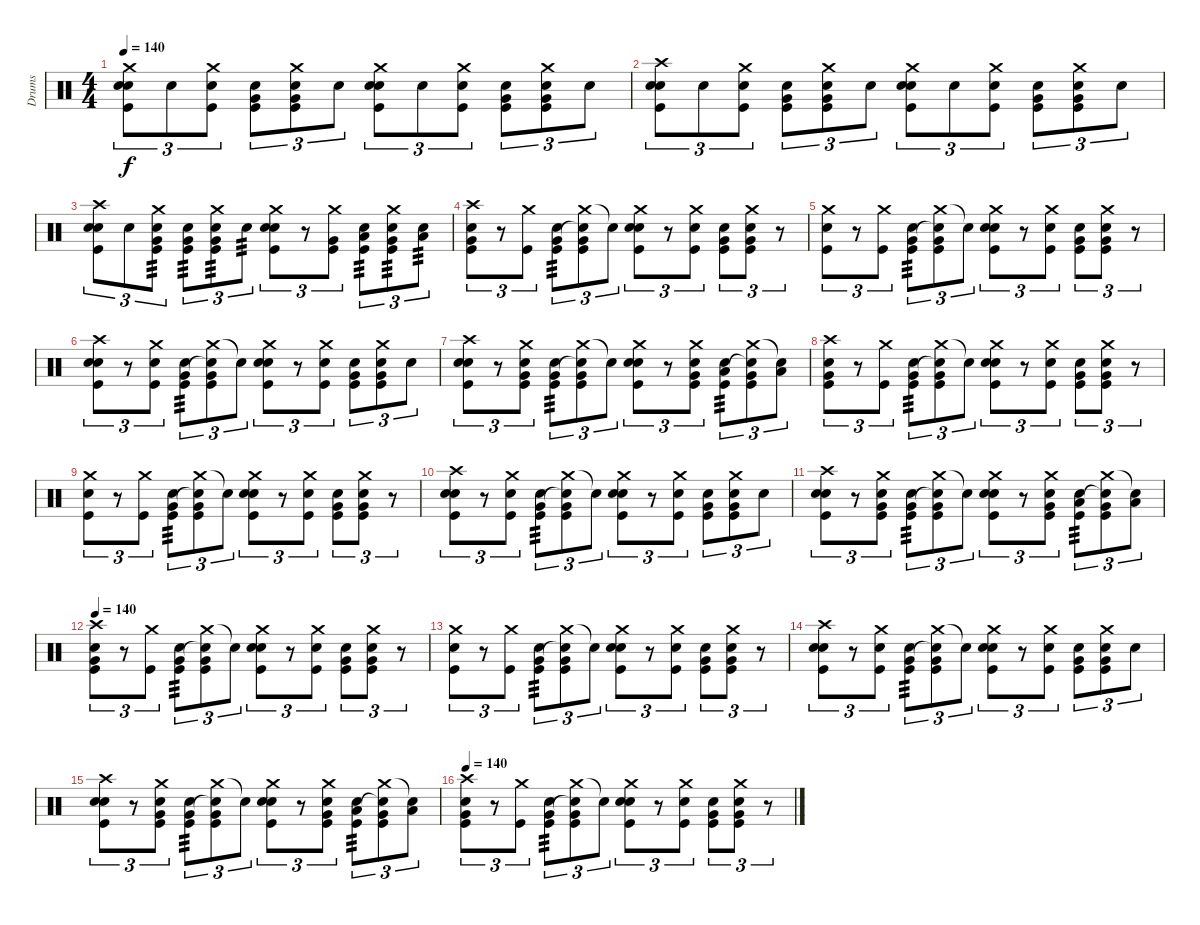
\track ("Drums" "Drums") {instrument percussion}
\staff {score}
\articulation defaults
\ts (4 4)
\tempo 140
\clef neutral
\ks c
("Crash medium (hit)" "Snare (hit) 2" "Snare (hit) 2" "Kick (hit)").8{tu (3 2) dy f} "Snare (hit) 2".8{tu (3 2)} ("Crash medium (hit)" "Snare (hit) 2" "Kick (hit)").8{tu (3 2)} ("Snare (hit) 2" "Very Low Tom (hit)" "Kick (hit)").8{tu (3 2)} ("Crash medium (hit)" "Snare (hit) 2" "Very Low Tom (hit)" "Kick (hit)").8{tu (3 2)} "Snare (hit) 2".8{tu (3 2)} ("Crash medium (hit)" "Snare (hit) 2" "Snare (hit) 2" "Kick (hit)").8{tu (3 2)} "Snare (hit) 2".8{tu (3 2)} ("Crash medium (hit)" "Snare (hit) 2" "Kick (hit)").8{tu (3 2)} ("Snare (hit) 2" "Very Low Tom (hit)" "Kick (hit)").8{tu (3 2)} ("Crash medium (hit)" "Snare (hit) 2" "Very Low Tom (hit)" "Kick (hit)").8{tu (3 2)} "Snare (hit) 2".8{tu (3 2)} |
("Crash high (hit)" "Snare (hit) 2" "Snare (hit) 2" "Kick (hit)").8{tu (3 2)} "Snare (hit) 2".8{tu (3 2)} ("Crash medium (hit)" "Snare (hit) 2" "Kick (hit)").8{tu (3 2)} ("Snare (hit) 2" "Very Low Tom (hit)" "Kick (hit)").8{tu (3 2)} ("Crash medium (hit)" "Snare (hit) 2" "Very Low Tom (hit)" "Kick (hit)").8{tu (3 2)} "Snare (hit) 2".8{tu (3 2)} ("Crash medium (hit)" "Snare (hit) 2" "Snare (hit) 2" "Kick (hit)").8{tu (3 2)} "Snare (hit) 2".8{tu (3 2)} ("Crash medium (hit)" "Snare (hit) 2" "Kick (hit)").8{tu (3 2)} ("Snare (hit) 2" "Very Low Tom (hit)" "Kick (hit)").8{tu (3 2)} ("Crash medium (hit)" "Snare (hit) 2" "Very Low Tom (hit)" "Kick (hit)").8{tu (3 2)} "Snare (hit) 2".8{tu (3 2)} |
("Crash high (hit)" "Snare (hit) 2" "Snare (hit) 2" "Kick (hit)").8{tu (3 2)} "Snare (hit) 2".8{tu (3 2)} ("Crash medium (hit)" "Snare (hit) 2" "Very Low Tom (hit)" "Kick (hit)").8{tu (3 2) tp 3} ("Snare (hit) 2" "Very Low Tom (hit)" "Kick (hit)").8{tu (3 2) tp 3} ("Crash medium (hit)" "Snare (hit) 2" "Very Low Tom (hit)" "Kick (hit)").8{tu (3 2) tp 3} "Snare (hit) 2".8{tu (3 2) tp 3} ("Crash medium (hit)" "Snare (hit) 2" "Snare (hit) 2" "Kick (hit)").8{tu (3 2)} r.8{tu (3 2)} ("Crash medium (hit)" "Very Low Tom (hit)" "Kick (hit)").8{tu (3 2)} ("Snare (hit) 2" "Low Tom (hit)" "Kick (hit)").8{tu (3 2) tp 3} ("Crash medium (hit)" "Snare (hit) 2" "Very Low Tom (hit)" "Kick (hit)").8{tu (3 2) tp 3} ("Snare (hit) 2" "Low Floor Tom (hit)").8{tu (3 2) tp 3} |
("Crash high (hit)" "Snare (hit) 2" "Very Low Tom (hit)" "Kick (hit)").8{tu (3 2)} r.8{tu (3 2)} ("Crash medium (hit)" "Kick (hit)").8{tu (3 2)} ("Snare (hit) 2" "Very Low Tom (hit)" "Kick (hit)").8{tu (3 2) tp 3} ("Crash medium (hit)" "Snare (hit)"{t} "Very Low Tom (hit)" "Kick (hit)").8{tu (3 2)} "Snare (hit)"{t}.8{tu (3 2)} ("Crash medium (hit)" "Snare (hit) 2" "Snare (hit) 2" "Kick (hit)").8{tu (3 2)} r.8{tu (3 2)} ("Crash medium (hit)" "Snare (hit) 2" "Kick (hit)").8{tu (3 2)} ("Snare (hit) 2" "Very Low Tom (hit)" "Kick (hit)").8{tu (3 2)} ("Crash medium (hit)" "Snare (hit) 2" "Very Low Tom (hit)" "Kick (hit)").8{tu (3 2)} r.8{tu (3 2)} |
("Crash medium (hit)" "Snare (hit) 2" "Kick (hit)").8{tu (3 2)} r.8{tu (3 2)} ("Crash medium (hit)" "Kick (hit)").8{tu (3 2)} ("Snare (hit) 2" "Very Low Tom (hit)" "Kick (hit)").8{tu (3 2) tp 3} ("Crash medium (hit)" "Snare (hit)"{t} "Very Low Tom (hit)" "Kick (hit)").8{tu (3 2)} "Snare (hit)"{t}.8{tu (3 2)} ("Crash medium (hit)" "Snare (hit) 2" "Snare (hit) 2" "Kick (hit)").8{tu (3 2)} r.8{tu (3 2)} ("Crash medium (hit)" "Snare (hit) 2" "Kick (hit)").8{tu (3 2)} ("Snare (hit) 2" "Very Low Tom (hit)" "Kick (hit)").8{tu (3 2)} ("Crash medium (hit)" "Snare (hit) 2" "Very Low Tom (hit)" "Kick (hit)").8{tu (3 2)} r.8{tu (3 2)} |
("Crash high (hit)" "Snare (hit) 2" "Snare (hit) 2" "Kick (hit)").8{tu (3 2)} r.8{tu (3 2)} ("Crash medium (hit)" "Snare (hit) 2" "Kick (hit)").8{tu (3 2)} ("Snare (hit) 2" "Very Low Tom (hit)" "Kick (hit)").8{tu (3 2) tp 3} ("Crash medium (hit)" "Snare (hit)"{t} "Very Low Tom (hit)" "Kick (hit)").8{tu (3 2)} "Snare (hit)"{t}.8{tu (3 2)} ("Crash medium (hit)" "Snare (hit) 2" "Snare (hit) 2" "Kick (hit)").8{tu (3 2)} r.8{tu (3 2)} ("Crash medium (hit)" "Snare (hit) 2" "Kick (hit)").8{tu (3 2)} ("Snare (hit) 2" "Very Low Tom (hit)" "Kick (hit)").8{tu (3 2)} ("Crash medium (hit)" "Snare (hit) 2" "Very Low Tom (hit)" "Kick (hit)").8{tu (3 2)} "Snare (hit) 2".8{tu (3 2)} |
("Crash high (hit)" "Snare (hit) 2" "Snare (hit) 2" "Kick (hit)").8{tu (3 2)} r.8{tu (3 2)} ("Crash medium (hit)" "Snare (hit) 2" "Very Low Tom (hit)" "Kick (hit)").8{tu (3 2)} ("Snare (hit) 2" "Very Low Tom (hit)" "Kick (hit)").8{tu (3 2) tp 3} ("Crash medium (hit)" "Snare (hit)"{t} "Very Low Tom (hit)" "Kick (hit)").8{tu (3 2)} "Snare (hit)"{t}.8{tu (3 2)} ("Crash medium (hit)" "Snare (hit) 2" "Snare (hit) 2" "Kick (hit)").8{tu (3 2)} r.8{tu (3 2)} ("Crash medium (hit)" "Snare (hit) 2" "Very Low Tom (hit)" "Kick (hit)").8{tu (3 2)} ("Snare (hit) 2" "Low Tom (hit)" "Kick (hit)").8{tu (3 2) tp 3} ("Crash medium (hit)" "Snare (hit)"{t} "Very Low Tom (hit)" "Kick (hit)").8{tu (3 2)} ("Snare (hit)"{t} "Low Floor Tom (hit)").8{tu (3 2)} |
("Crash high (hit)" "Snare (hit) 2" "Very Low Tom (hit)" "Kick (hit)").8{tu (3 2)} r.8{tu (3 2)} ("Crash medium (hit)" "Kick (hit)").8{tu (3 2)} ("Snare (hit) 2" "Very Low Tom (hit)" "Kick (hit)").8{tu (3 2) tp 3} ("Crash medium (hit)" "Snare (hit)"{t} "Very Low Tom (hit)" "Kick (hit)").8{tu (3 2)} "Snare (hit)"{t}.8{tu (3 2)} ("Crash medium (hit)" "Snare (hit) 2" "Snare (hit) 2" "Kick (hit)").8{tu (3 2)} r.8{tu (3 2)} ("Crash medium (hit)" "Snare (hit) 2" "Kick (hit)").8{tu (3 2)} ("Snare (hit) 2" "Very Low Tom (hit)" "Kick (hit)").8{tu (3 2)} ("Crash medium (hit)" "Snare (hit) 2" "Very Low Tom (hit)" "Kick (hit)").8{tu (3 2)} r.8{tu (3 2)} |
("Crash medium (hit)" "Snare (hit) 2" "Kick (hit)").8{tu (3 2)} r.8{tu (3 2)} ("Crash medium (hit)" "Kick (hit)").8{tu (3 2)} ("Snare (hit) 2" "Very Low Tom (hit)" "Kick (hit)").8{tu (3 2) tp 3} ("Crash medium (hit)" "Snare (hit)"{t} "Very Low Tom (hit)" "Kick (hit)").8{tu (3 2)} "Snare (hit)"{t}.8{tu (3 2)} ("Crash medium (hit)" "Snare (hit) 2" "Snare (hit) 2" "Kick (hit)").8{tu (3 2)} r.8{tu (3 2)} ("Crash medium (hit)" "Snare (hit) 2" "Kick (hit)").8{tu (3 2)} ("Snare (hit) 2" "Very Low Tom (hit)" "Kick (hit)").8{tu (3 2)} ("Crash medium (hit)" "Snare (hit) 2" "Very Low Tom (hit)" "Kick (hit)").8{tu (3 2)} r.8{tu (3 2)} |
("Crash high (hit)" "Snare (hit) 2" "Snare (hit) 2" "Kick (hit)").8{tu (3 2)} r.8{tu (3 2)} ("Crash medium (hit)" "Snare (hit) 2" "Kick (hit)").8{tu (3 2)} ("Snare (hit) 2" "Very Low Tom (hit)" "Kick (hit)").8{tu (3 2) tp 3} ("Crash medium (hit)" "Snare (hit)"{t} "Very Low Tom (hit)" "Kick (hit)").8{tu (3 2)} "Snare (hit)"{t}.8{tu (3 2)} ("Crash medium (hit)" "Snare (hit) 2" "Snare (hit) 2" "Kick (hit)").8{tu (3 2)} r.8{tu (3 2)} ("Crash medium (hit)" "Snare (hit) 2" "Kick (hit)").8{tu (3 2)} ("Snare (hit) 2" "Very Low Tom (hit)" "Kick (hit)").8{tu (3 2)} ("Crash medium (hit)" "Snare (hit) 2" "Very Low Tom (hit)" "Kick (hit)").8{tu (3 2)} "Snare (hit) 2".8{tu (3 2)} |
("Crash high (hit)" "Snare (hit) 2" "Snare (hit) 2" "Kick (hit)").8{tu (3 2)} r.8{tu (3 2)} ("Crash medium (hit)" "Snare (hit) 2" "Very Low Tom (hit)" "Kick (hit)").8{tu (3 2)} ("Snare (hit) 2" "Very Low Tom (hit)" "Kick (hit)").8{tu (3 2) tp 3} ("Crash medium (hit)" "Snare (hit)"{t} "Very Low Tom (hit)" "Kick (hit)").8{tu (3 2)} "Snare (hit)"{t}.8{tu (3 2)} ("Crash medium (hit)" "Snare (hit) 2" "Snare (hit) 2" "Kick (hit)").8{tu (3 2)} r.8{tu (3 2)} ("Crash medium (hit)" "Snare (hit) 2" "Very Low Tom (hit)" "Kick (hit)").8{tu (3 2)} ("Snare (hit) 2" "Low Tom (hit)" "Kick (hit)").8{tu (3 2) tp 3} ("Crash medium (hit)" "Snare (hit)"{t} "Very Low Tom (hit)" "Kick (hit)").8{tu (3 2)} ("Snare (hit)"{t} "Low Floor Tom (hit)").8{tu (3 2)} |
\tempo 140
("Crash high (hit)" "Snare (hit) 2" "Very Low Tom (hit)" "Kick (hit)").8{tu (3 2)} r.8{tu (3 2)} ("Crash medium (hit)" "Kick (hit)").8{tu (3 2)} ("Snare (hit) 2" "Very Low Tom (hit)" "Kick (hit)").8{tu (3 2) tp 3} ("Crash medium (hit)" "Snare (hit)"{t} "Very Low Tom (hit)" "Kick (hit)").8{tu (3 2)} "Snare (hit)"{t}.8{tu (3 2)} ("Crash medium (hit)" "Snare (hit) 2" "Snare (hit) 2" "Kick (hit)").8{tu (3 2)} r.8{tu (3 2)} ("Crash medium (hit)" "Snare (hit) 2" "Kick (hit)").8{tu (3 2)} ("Snare (hit) 2" "Very Low Tom (hit)" "Kick (hit)").8{tu (3 2)} ("Crash medium (hit)" "Snare (hit) 2" "Very Low Tom (hit)" "Kick (hit)").8{tu (3 2)} r.8{tu (3 2)} |
("Crash medium (hit)" "Snare (hit) 2" "Kick (hit)").8{tu (3 2)} r.8{tu (3 2)} ("Crash medium (hit)" "Kick (hit)").8{tu (3 2)} ("Snare (hit) 2" "Very Low Tom (hit)" "Kick (hit)").8{tu (3 2) tp 3} ("Crash medium (hit)" "Snare (hit)"{t} "Very Low Tom (hit)" "Kick (hit)").8{tu (3 2)} "Snare (hit)"{t}.8{tu (3 2)} ("Crash medium (hit)" "Snare (hit) 2" "Snare (hit) 2" "Kick (hit)").8{tu (3 2)} r.8{tu (3 2)} ("Crash medium (hit)" "Snare (hit) 2" "Kick (hit)").8{tu (3 2)} ("Snare (hit) 2" "Very Low Tom (hit)" "Kick (hit)").8{tu (3 2)} ("Crash medium (hit)" "Snare (hit) 2" "Very Low Tom (hit)" "Kick (hit)").8{tu (3 2)} r.8{tu (3 2)} |
("Crash high (hit)" "Snare (hit) 2" "Snare (hit) 2" "Kick (hit)").8{tu (3 2)} r.8{tu (3 2)} ("Crash medium (hit)" "Snare (hit) 2" "Kick (hit)").8{tu (3 2)} ("Snare (hit) 2" "Very Low Tom (hit)" "Kick (hit)").8{tu (3 2) tp 3} ("Crash medium (hit)" "Snare (hit)"{t} "Very Low Tom (hit)" "Kick (hit)").8{tu (3 2)} "Snare (hit)"{t}.8{tu (3 2)} ("Crash medium (hit)" "Snare (hit) 2" "Snare (hit) 2" "Kick (hit)").8{tu (3 2)} r.8{tu (3 2)} ("Crash medium (hit)" "Snare (hit) 2" "Kick (hit)").8{tu (3 2)} ("Snare (hit) 2" "Very Low Tom (hit)" "Kick (hit)").8{tu (3 2)} ("Crash medium (hit)" "Snare (hit) 2" "Very Low Tom (hit)" "Kick (hit)").8{tu (3 2)} "Snare (hit) 2".8{tu (3 2)} |
("Crash high (hit)" "Snare (hit) 2" "Snare (hit) 2" "Kick (hit)").8{tu (3 2)} r.8{tu (3 2)} ("Crash medium (hit)" "Snare (hit) 2" "Very Low Tom (hit)" "Kick (hit)").8{tu (3 2)} ("Snare (hit) 2" "Very Low Tom (hit)" "Kick (hit)").8{tu (3 2) tp 3} ("Crash medium (hit)" "Snare (hit)"{t} "Very Low Tom (hit)" "Kick (hit)").8{tu (3 2)} "Snare (hit)"{t}.8{tu (3 2)} ("Crash medium (hit)" "Snare (hit) 2" "Snare (hit) 2" "Kick (hit)").8{tu (3 2)} r.8{tu (3 2)} ("Crash medium (hit)" "Snare (hit) 2" "Very Low Tom (hit)" "Kick (hit)").8{tu (3 2)} ("Snare (hit) 2" "Low Tom (hit)" "Kick (hit)").8{tu (3 2) tp 3} ("Crash medium (hit)" "Snare (hit)"{t} "Very Low Tom (hit)" "Kick (hit)").8{tu (3 2)} ("Snare (hit)"{t} "Low Floor Tom (hit)").8{tu (3 2)} |
\tempo 140
("Crash high (hit)" "Snare (hit) 2" "Very Low Tom (hit)" "Kick (hit)").8{tu (3 2)} r.8{tu (3 2)} ("Crash medium (hit)" "Kick (hit)").8{tu (3 2)} ("Snare (hit) 2" "Very Low Tom (hit)" "Kick (hit)").8{tu (3 2) tp 3} ("Crash medium (hit)" "Snare (hit)"{t} "Very Low Tom (hit)" "Kick (hit)").8{tu (3 2)} "Snare (hit)"{t}.8{tu (3 2)} ("Crash medium (hit)" "Snare (hit) 2" "Snare (hit) 2" "Kick (hit)").8{tu (3 2)} r.8{tu (3 2)} ("Crash medium (hit)" "Snare (hit) 2" "Kick (hit)").8{tu (3 2)} ("Snare (hit) 2" "Very Low Tom (hit)" "Kick (hit)").8{tu (3 2)} ("Crash medium (hit)" "Snare (hit) 2" "Very Low Tom (hit)" "Kick (hit)").8{tu (3 2)} r.8{tu (3 2)}
